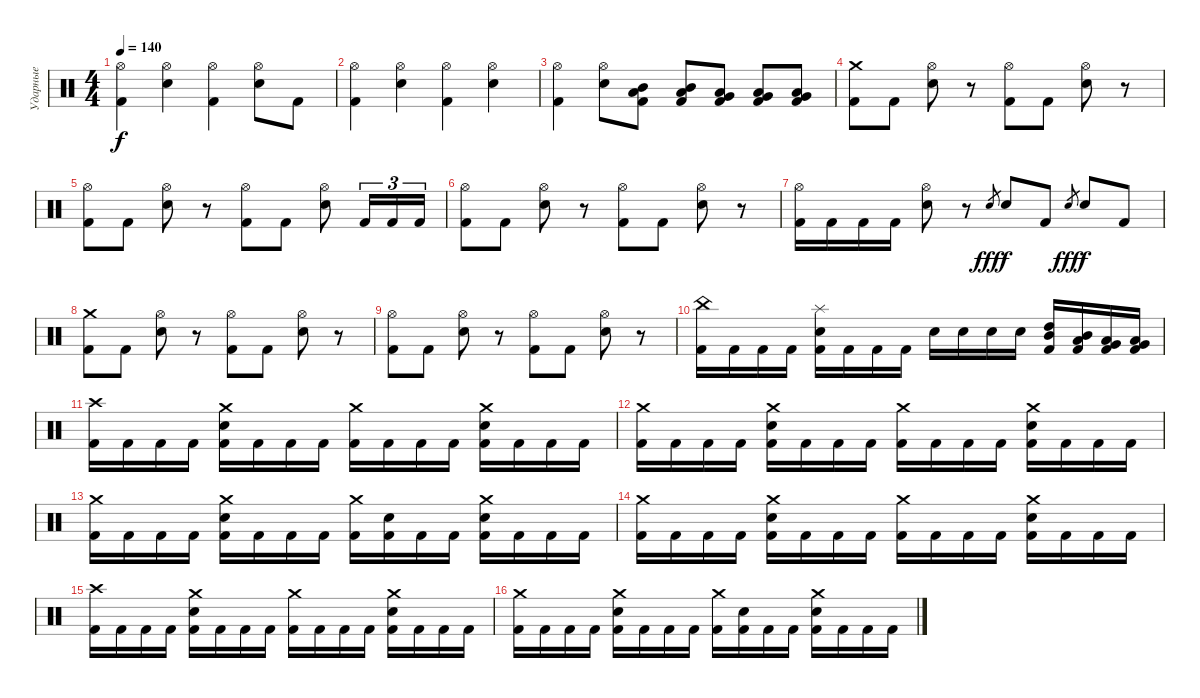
\track ("Ударные" "Ударные") {instrument percussion}
\staff {score}
\articulation defaults
\ts (4 4)
\tempo 140
\clef neutral
\ks c
("Hi-Hat (open)" "Kick (hit) 2").4{dy f} ("Hi-Hat (open)" "Electric Snare (hit)").4 ("Hi-Hat (open)" "Kick (hit) 2").4 ("Hi-Hat (open)" "Electric Snare (hit)").8 "Kick (hit) 2".8 |
("Hi-Hat (open)" "Kick (hit) 2").4 ("Hi-Hat (open)" "Electric Snare (hit)").4 ("Hi-Hat (open)" "Kick (hit) 2").4 ("Hi-Hat (open)" "Electric Snare (hit)").4 |
("Hi-Hat (open)" "Kick (hit) 2").4 ("Hi-Hat (open)" "Electric Snare (hit)").8 ("Mid Tom (hit)" "Low Tom (hit)" "Kick (hit) 2").8 ("Mid Tom (hit)" "Low Tom (hit)" "Kick (hit) 2").8 ("Very Low Tom (hit)" "Low Tom (hit)" "Kick (hit) 2").8 ("Very Low Tom (hit)" "Low Floor Tom (hit)" "Kick (hit) 2").8 ("Very Low Tom (hit)" "Low Floor Tom (hit)" "Kick (hit) 2").8 |
("Crash medium (hit)" "Kick (hit) 2").8 "Kick (hit) 2".8 ("Hi-Hat (open)" "Electric Snare (hit)").8 r.8 ("Hi-Hat (open)" "Kick (hit) 2").8 "Kick (hit) 2".8 ("Hi-Hat (open)" "Electric Snare (hit)").8 r.8 |
("Hi-Hat (open)" "Kick (hit) 2").8 "Kick (hit) 2".8 ("Hi-Hat (open)" "Electric Snare (hit)").8 r.8 ("Hi-Hat (open)" "Kick (hit) 2").8 "Kick (hit) 2".8 ("Hi-Hat (open)" "Electric Snare (hit)").8 "Kick (hit) 2".16{tu (3 2)} "Kick (hit) 2".16{tu (3 2)} "Kick (hit) 2".16{tu (3 2)} |
("Hi-Hat (open)" "Kick (hit) 2").8 "Kick (hit) 2".8 ("Hi-Hat (open)" "Electric Snare (hit)").8 r.8 ("Hi-Hat (open)" "Kick (hit) 2").8 "Kick (hit) 2".8 ("Hi-Hat (open)" "Electric Snare (hit)").8 r.8 |
("Hi-Hat (open)" "Kick (hit) 2").16 "Kick (hit) 2".16 "Kick (hit) 2".16 "Kick (hit) 2".16 ("Hi-Hat (open)" "Electric Snare (hit)").8 r.8 "Electric Snare (hit)".8{gr dy fff} "Electric Snare (hit)".8{dy f} "Kick (hit) 2".8 "Electric Snare (hit)".8{gr dy fff} "Electric Snare (hit)".8{dy f} "Kick (hit) 2".8 |
("Crash medium (hit)" "Kick (hit) 2").8 "Kick (hit) 2".8 ("Hi-Hat (open)" "Electric Snare (hit)").8 r.8 ("Hi-Hat (open)" "Kick (hit) 2").8 "Kick (hit) 2".8 ("Hi-Hat (open)" "Electric Snare (hit)").8 r.8 |
("Hi-Hat (open)" "Kick (hit) 2").8 "Kick (hit) 2".8 ("Hi-Hat (open)" "Electric Snare (hit)").8 r.8 ("Hi-Hat (open)" "Kick (hit) 2").8 "Kick (hit) 2".8 ("Hi-Hat (open)" "Electric Snare (hit)").8 r.8 |
("China (hit)" "Kick (hit) 2").16 "Kick (hit) 2".16 "Kick (hit) 2".16 "Kick (hit) 2".16 ("Splash (hit)" "Electric Snare (hit)" "Kick (hit) 2").16 "Kick (hit) 2".16 "Kick (hit) 2".16 "Kick (hit) 2".16 "Electric Snare (hit)".16 "Electric Snare (hit)".16 "Electric Snare (hit)".16 "Electric Snare (hit)".16 ("High Tom (hit)" "Mid Tom (hit)" "Kick (hit) 2").16 ("Mid Tom (hit)" "Low Tom (hit)" "Kick (hit) 2").16 ("Low Tom (hit)" "Very Low Tom (hit)" "Kick (hit) 2").16 ("Very Low Tom (hit)" "Low Floor Tom (hit)" "Kick (hit) 2").16 |
("Crash high (hit)" "Kick (hit) 2").16 "Kick (hit) 2".16 "Kick (hit) 2".16 "Kick (hit) 2".16 ("Crash medium (hit)" "Electric Snare (hit)" "Kick (hit) 2").16 "Kick (hit) 2".16 "Kick (hit) 2".16 "Kick (hit) 2".16 ("Crash medium (hit)" "Kick (hit) 2").16 "Kick (hit) 2".16 "Kick (hit) 2".16 "Kick (hit) 2".16 ("Crash medium (hit)" "Electric Snare (hit)" "Kick (hit) 2").16 "Kick (hit) 2".16 "Kick (hit) 2".16 "Kick (hit) 2".16 |
("Crash medium (hit)" "Kick (hit) 2").16 "Kick (hit) 2".16 "Kick (hit) 2".16 "Kick (hit) 2".16 ("Crash medium (hit)" "Electric Snare (hit)" "Kick (hit) 2").16 "Kick (hit) 2".16 "Kick (hit) 2".16 "Kick (hit) 2".16 ("Crash medium (hit)" "Kick (hit) 2").16 "Kick (hit) 2".16 "Kick (hit) 2".16 "Kick (hit) 2".16 ("Crash medium (hit)" "Electric Snare (hit)" "Kick (hit) 2").16 "Kick (hit) 2".16 "Kick (hit) 2".16 "Kick (hit) 2".16 |
("Crash medium (hit)" "Kick (hit) 2").16 "Kick (hit) 2".16 "Kick (hit) 2".16 "Kick (hit) 2".16 ("Crash medium (hit)" "Electric Snare (hit)" "Kick (hit) 2").16 "Kick (hit) 2".16 "Kick (hit) 2".16 "Kick (hit) 2".16 ("Crash medium (hit)" "Kick (hit) 2").16 ("Electric Snare (hit)" "Kick (hit) 2").16 "Kick (hit) 2".16 "Kick (hit) 2".16 ("Crash medium (hit)" "Electric Snare (hit)" "Kick (hit) 2").16 "Kick (hit) 2".16 "Kick (hit) 2".16 "Kick (hit) 2".16 |
("Crash medium (hit)" "Kick (hit) 2").16 "Kick (hit) 2".16 "Kick (hit) 2".16 "Kick (hit) 2".16 ("Crash medium (hit)" "Electric Snare (hit)" "Kick (hit) 2").16 "Kick (hit) 2".16 "Kick (hit) 2".16 "Kick (hit) 2".16 ("Crash medium (hit)" "Kick (hit) 2").16 "Kick (hit) 2".16 "Kick (hit) 2".16 "Kick (hit) 2".16 ("Crash medium (hit)" "Electric Snare (hit)" "Kick (hit) 2").16 "Kick (hit) 2".16 "Kick (hit) 2".16 "Kick (hit) 2".16 |
("Crash high (hit)" "Kick (hit) 2").16 "Kick (hit) 2".16 "Kick (hit) 2".16 "Kick (hit) 2".16 ("Crash medium (hit)" "Electric Snare (hit)" "Kick (hit) 2").16 "Kick (hit) 2".16 "Kick (hit) 2".16 "Kick (hit) 2".16 ("Crash medium (hit)" "Kick (hit) 2").16 "Kick (hit) 2".16 "Kick (hit) 2".16 "Kick (hit) 2".16 ("Crash medium (hit)" "Electric Snare (hit)" "Kick (hit) 2").16 "Kick (hit) 2".16 "Kick (hit) 2".16 "Kick (hit) 2".16 |
("Crash medium (hit)" "Kick (hit) 2").16 "Kick (hit) 2".16 "Kick (hit) 2".16 "Kick (hit) 2".16 ("Crash medium (hit)" "Electric Snare (hit)" "Kick (hit) 2").16 "Kick (hit) 2".16 "Kick (hit) 2".16 "Kick (hit) 2".16 ("Crash medium (hit)" "Kick (hit) 2").16 ("Electric Snare (hit)" "Kick (hit) 2").16 "Kick (hit) 2".16 "Kick (hit) 2".16 ("Crash medium (hit)" "Electric Snare (hit)" "Kick (hit) 2").16 "Kick (hit) 2".16 "Kick (hit) 2".16 "Kick (hit) 2".16
